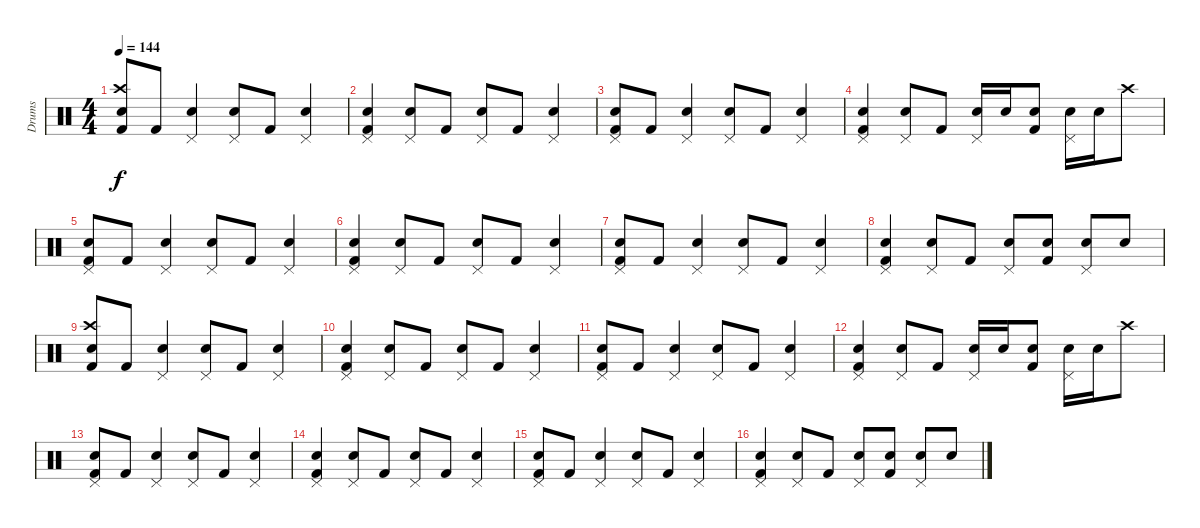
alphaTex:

\track ("Drums" "Drums") {instrument percussion}
\staff {score}
\articulation defaults
\ts (4 4)
\tempo 144
\clef neutral
\ks c
("Electric Snare (hit)" "Crash high (hit)" "Kick (hit) 2").8{dy f} "Kick (hit) 2".8 ("Electric Snare (hit)" "Pedal Hi-Hat (hit)").4 ("Electric Snare (hit)" "Pedal Hi-Hat (hit)").8{volume 16} "Kick (hit) 2".8{volume 16} ("Pedal Hi-Hat (hit)" "Electric Snare (hit)").4 |
("Electric Snare (hit)" "Kick (hit) 2" "Pedal Hi-Hat (hit)").4{volume 15} ("Electric Snare (hit)" "Pedal Hi-Hat (hit)").8{volume 15} "Kick (hit) 2".8 ("Electric Snare (hit)" "Pedal Hi-Hat (hit)").8 "Kick (hit) 2".8{volume 14} ("Electric Snare (hit)" "Pedal Hi-Hat (hit)").4{volume 14} |
("Electric Snare (hit)" "Pedal Hi-Hat (hit)" "Kick (hit) 2").8{volume 14} "Kick (hit) 2".8{volume 14} ("Pedal Hi-Hat (hit)" "Electric Snare (hit)").4{volume 14} ("Electric Snare (hit)" "Pedal Hi-Hat (hit)").8{volume 14} "Kick (hit) 2".8 ("Pedal Hi-Hat (hit)" "Electric Snare (hit)").4{volume 14} |
("Electric Snare (hit)" "Kick (hit) 2" "Pedal Hi-Hat (hit)").4 ("Electric Snare (hit)" "Pedal Hi-Hat (hit)").8 "Kick (hit) 2".8 ("Electric Snare (hit)" "Pedal Hi-Hat (hit)").16 "Electric Snare (hit)".16{volume 14} ("Electric Snare (hit)" "Kick (hit) 2").8 ("Electric Snare (hit)" "Pedal Hi-Hat (hit)").16 "Electric Snare (hit)".16 "Crash high (hit)".8{volume 13} |
("Electric Snare (hit)" "Pedal Hi-Hat (hit)" "Kick (hit) 2").8{volume 13} "Kick (hit) 2".8{volume 13} ("Pedal Hi-Hat (hit)" "Electric Snare (hit)").4{volume 13} ("Electric Snare (hit)" "Pedal Hi-Hat (hit)").8{volume 13} "Kick (hit) 2".8{volume 12} ("Pedal Hi-Hat (hit)" "Electric Snare (hit)").4 |
("Electric Snare (hit)" "Kick (hit) 2" "Pedal Hi-Hat (hit)").4{volume 12} ("Electric Snare (hit)" "Pedal Hi-Hat (hit)").8{volume 12} "Kick (hit) 2".8{volume 12} ("Electric Snare (hit)" "Pedal Hi-Hat (hit)").8 "Kick (hit) 2".8 ("Electric Snare (hit)" "Pedal Hi-Hat (hit)").4{volume 12} |
("Electric Snare (hit)" "Pedal Hi-Hat (hit)" "Kick (hit) 2").8{volume 12} "Kick (hit) 2".8 ("Pedal Hi-Hat (hit)" "Electric Snare (hit)").4{volume 12} ("Electric Snare (hit)" "Pedal Hi-Hat (hit)").8{volume 11} "Kick (hit) 2".8{volume 11} ("Pedal Hi-Hat (hit)" "Electric Snare (hit)").4{volume 11} |
("Electric Snare (hit)" "Kick (hit) 2" "Pedal Hi-Hat (hit)").4{volume 11} ("Electric Snare (hit)" "Pedal Hi-Hat (hit)").8{volume 11} "Kick (hit) 2".8 ("Electric Snare (hit)" "Pedal Hi-Hat (hit)").8 ("Electric Snare (hit)" "Kick (hit) 2").8 ("Electric Snare (hit)" "Pedal Hi-Hat (hit)").8 "Electric Snare (hit)".8{volume 10} |
("Electric Snare (hit)" "Crash high (hit)" "Kick (hit) 2").8{volume 10} "Kick (hit) 2".8 ("Pedal Hi-Hat (hit)" "Electric Snare (hit)").4 ("Electric Snare (hit)" "Pedal Hi-Hat (hit)").8 "Kick (hit) 2".8 ("Pedal Hi-Hat (hit)" "Electric Snare (hit)").4{volume 10} |
("Electric Snare (hit)" "Kick (hit) 2" "Pedal Hi-Hat (hit)").4{volume 10} ("Electric Snare (hit)" "Pedal Hi-Hat (hit)").8 "Kick (hit) 2".8{volume 9} ("Electric Snare (hit)" "Pedal Hi-Hat (hit)").8{volume 9} "Kick (hit) 2".8 ("Electric Snare (hit)" "Pedal Hi-Hat (hit)").4 |
("Electric Snare (hit)" "Pedal Hi-Hat (hit)" "Kick (hit) 2").8 "Kick (hit) 2".8 ("Pedal Hi-Hat (hit)" "Electric Snare (hit)").4{volume 9} ("Electric Snare (hit)" "Pedal Hi-Hat (hit)").8{volume 9} "Kick (hit) 2".8 ("Pedal Hi-Hat (hit)" "Electric Snare (hit)").4{volume 9} |
("Electric Snare (hit)" "Kick (hit) 2" "Pedal Hi-Hat (hit)").4{volume 8} ("Electric Snare (hit)" "Pedal Hi-Hat (hit)").8{volume 8} "Kick (hit) 2".8 ("Electric Snare (hit)" "Pedal Hi-Hat (hit)").16 "Electric Snare (hit)".16 ("Electric Snare (hit)" "Kick (hit) 2").8 ("Electric Snare (hit)" "Pedal Hi-Hat (hit)").16{volume 8} "Electric Snare (hit)".16 "Crash high (hit)".8 |
("Electric Snare (hit)" "Pedal Hi-Hat (hit)" "Kick (hit) 2").8 "Kick (hit) 2".8 ("Pedal Hi-Hat (hit)" "Electric Snare (hit)").4{volume 8} ("Electric Snare (hit)" "Pedal Hi-Hat (hit)").8{volume 8} "Kick (hit) 2".8 ("Pedal Hi-Hat (hit)" "Electric Snare (hit)").4 |
("Electric Snare (hit)" "Kick (hit) 2" "Pedal Hi-Hat (hit)").4{volume 8} ("Electric Snare (hit)" "Pedal Hi-Hat (hit)").8{volume 7} "Kick (hit) 2".8{volume 7} ("Electric Snare (hit)" "Pedal Hi-Hat (hit)").8{volume 7} "Kick (hit) 2".8{volume 6} ("Electric Snare (hit)" "Pedal Hi-Hat (hit)").4{volume 6} |
("Electric Snare (hit)" "Pedal Hi-Hat (hit)" "Kick (hit) 2").8{volume 6} "Kick (hit) 2".8{volume 5} ("Pedal Hi-Hat (hit)" "Electric Snare (hit)").4{volume 5} ("Electric Snare (hit)" "Pedal Hi-Hat (hit)").8{volume 4} "Kick (hit) 2".8{volume 3} ("Pedal Hi-Hat (hit)" "Electric Snare (hit)").4{volume 3} |
("Electric Snare (hit)" "Kick (hit) 2" "Pedal Hi-Hat (hit)").4{volume 1} ("Electric Snare (hit)" "Pedal Hi-Hat (hit)").8{volume 1} "Kick (hit) 2".8{volume 0} ("Electric Snare (hit)" "Pedal Hi-Hat (hit)").8 ("Electric Snare (hit)" "Kick (hit) 2").8 ("Electric Snare (hit)" "Pedal Hi-Hat (hit)").8 "Electric Snare (hit)".8
